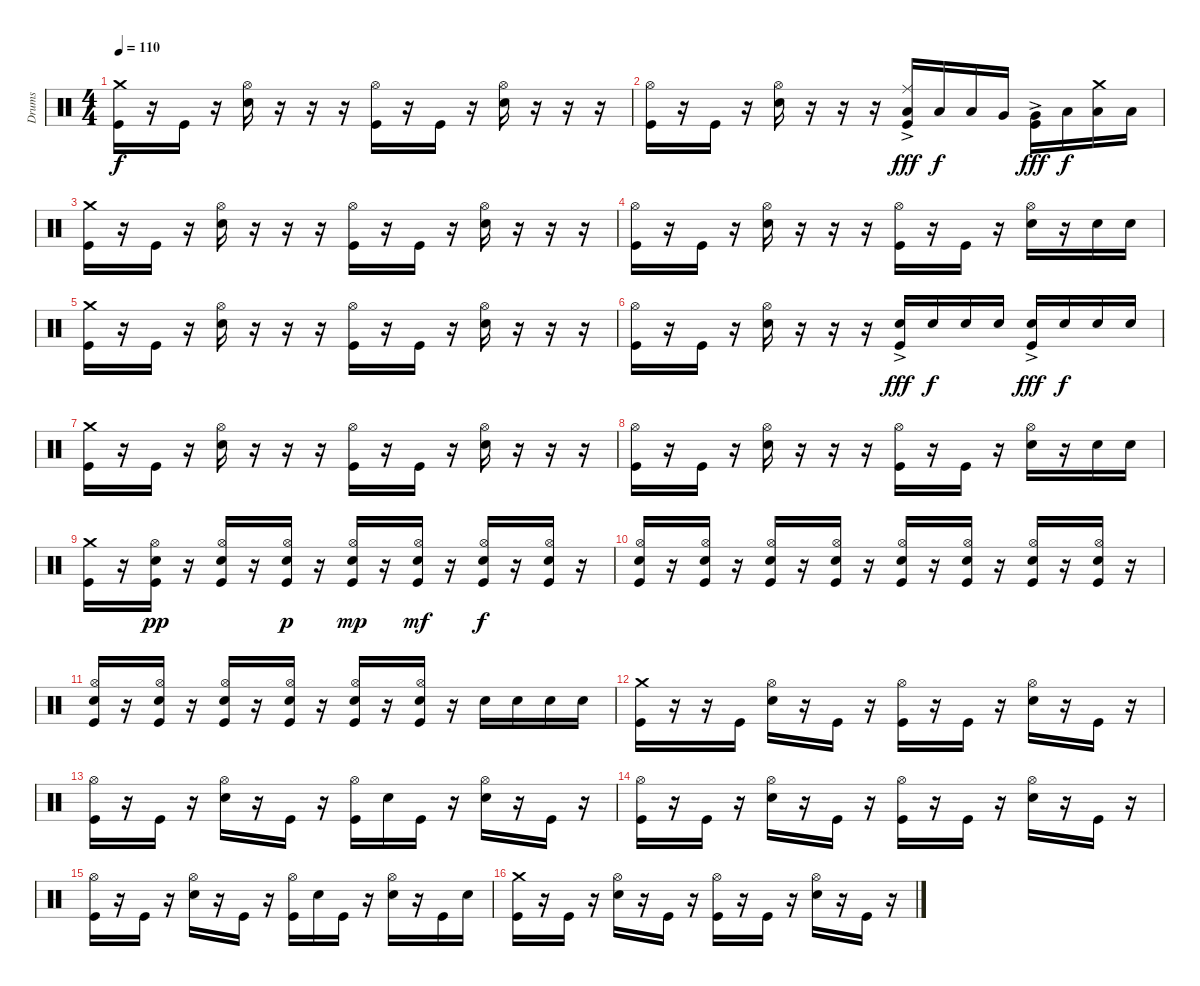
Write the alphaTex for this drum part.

\track ("Drums" "Drums") {instrument percussion}
\staff {score}
\articulation defaults
\ts (4 4)
\tempo 110
\clef neutral
\ks c
("Crash medium (hit)" "Kick (hit)").16{dy f} r.16 "Kick (hit)".16 r.16 ("Hi-Hat (open)" "Snare (hit) 2").16 r.16 r.16 r.16 ("Hi-Hat (open)" "Kick (hit)").16 r.16 "Kick (hit)".16 r.16 ("Hi-Hat (open)" "Snare (hit) 2").16 r.16 r.16 r.16 |
("Hi-Hat (open)" "Kick (hit)").16 r.16 "Kick (hit)".16 r.16 ("Hi-Hat (open)" "Snare (hit) 2").16 r.16 r.16 r.16 ("Ride (middle)" "Low Tom (hit)" "Kick (hit)"{ac}).16{dy fff} "Low Tom (hit)".16{dy f} "Low Tom (hit)".16 "Very Low Tom (hit)".16 ("Very Low Tom (hit)" "Kick (hit)"{ac}).16{dy fff} "Low Floor Tom (hit)".16{dy f} ("Crash medium (hit)" "Low Floor Tom (hit)").16 "Low Floor Tom (hit)".16 |
("Crash medium (hit)" "Kick (hit)").16 r.16 "Kick (hit)".16 r.16 ("Hi-Hat (open)" "Snare (hit) 2").16 r.16 r.16 r.16 ("Hi-Hat (open)" "Kick (hit)").16 r.16 "Kick (hit)".16 r.16 ("Hi-Hat (open)" "Snare (hit) 2").16 r.16 r.16 r.16 |
("Hi-Hat (open)" "Kick (hit)").16 r.16 "Kick (hit)".16 r.16 ("Hi-Hat (open)" "Snare (hit) 2").16 r.16 r.16 r.16 ("Hi-Hat (open)" "Kick (hit)").16 r.16 "Kick (hit)".16 r.16 ("Hi-Hat (open)" "Snare (hit) 2").16 r.16 "Snare (hit) 2".16 "Snare (hit) 2".16 |
("Crash medium (hit)" "Kick (hit)").16 r.16 "Kick (hit)".16 r.16 ("Hi-Hat (open)" "Snare (hit) 2").16 r.16 r.16 r.16 ("Hi-Hat (open)" "Kick (hit)").16 r.16 "Kick (hit)".16 r.16 ("Hi-Hat (open)" "Snare (hit) 2").16 r.16 r.16 r.16 |
("Hi-Hat (open)" "Kick (hit)").16 r.16 "Kick (hit)".16 r.16 ("Hi-Hat (open)" "Snare (hit) 2").16 r.16 r.16 r.16 ("Snare (hit) 2" "Kick (hit)"{ac}).16{dy fff} "Snare (hit) 2".16{dy f} "Snare (hit) 2".16 "Snare (hit) 2".16 ("Snare (hit) 2" "Kick (hit)"{ac}).16{dy fff} "Snare (hit) 2".16{dy f} "Snare (hit) 2".16 "Snare (hit) 2".16 |
("Crash medium (hit)" "Kick (hit)").16 r.16 "Kick (hit)".16 r.16 ("Hi-Hat (open)" "Snare (hit) 2").16 r.16 r.16 r.16 ("Hi-Hat (open)" "Kick (hit)").16 r.16 "Kick (hit)".16 r.16 ("Hi-Hat (open)" "Snare (hit) 2").16 r.16 r.16 r.16 |
("Hi-Hat (open)" "Kick (hit)").16 r.16 "Kick (hit)".16 r.16 ("Hi-Hat (open)" "Snare (hit) 2").16 r.16 r.16 r.16 ("Hi-Hat (open)" "Kick (hit)").16 r.16 "Kick (hit)".16 r.16 ("Hi-Hat (open)" "Snare (hit) 2").16 r.16 "Snare (hit) 2".16 "Snare (hit) 2".16 |
("Crash medium (hit)" "Kick (hit)").16 r.16 ("Hi-Hat (open)" "Snare (hit) 2" "Kick (hit)").16{dy pp} r.16 ("Hi-Hat (open)" "Snare (hit) 2" "Kick (hit)").16 r.16 ("Hi-Hat (open)" "Snare (hit) 2" "Kick (hit)").16{dy p} r.16 ("Hi-Hat (open)" "Snare (hit) 2" "Kick (hit)").16{dy mp} r.16 ("Hi-Hat (open)" "Snare (hit) 2" "Kick (hit)").16{dy mf} r.16 ("Hi-Hat (open)" "Snare (hit) 2" "Kick (hit)").16{dy f} r.16 ("Hi-Hat (open)" "Snare (hit) 2" "Kick (hit)").16 r.16 |
("Hi-Hat (open)" "Snare (hit) 2" "Kick (hit)").16 r.16 ("Hi-Hat (open)" "Snare (hit) 2" "Kick (hit)").16 r.16 ("Hi-Hat (open)" "Snare (hit) 2" "Kick (hit)").16 r.16 ("Hi-Hat (open)" "Snare (hit) 2" "Kick (hit)").16 r.16 ("Hi-Hat (open)" "Snare (hit) 2" "Kick (hit)").16 r.16 ("Hi-Hat (open)" "Snare (hit) 2" "Kick (hit)").16 r.16 ("Hi-Hat (open)" "Snare (hit) 2" "Kick (hit)").16 r.16 ("Hi-Hat (open)" "Snare (hit) 2" "Kick (hit)").16 r.16 |
("Hi-Hat (open)" "Snare (hit) 2" "Kick (hit)").16 r.16 ("Hi-Hat (open)" "Snare (hit) 2" "Kick (hit)").16 r.16 ("Hi-Hat (open)" "Snare (hit) 2" "Kick (hit)").16 r.16 ("Hi-Hat (open)" "Snare (hit) 2" "Kick (hit)").16 r.16 ("Hi-Hat (open)" "Snare (hit) 2" "Kick (hit)").16 r.16 ("Hi-Hat (open)" "Snare (hit) 2" "Kick (hit)").16 r.16 "Snare (hit) 2".16 "Snare (hit) 2".16 "Snare (hit) 2".16 "Snare (hit) 2".16 |
("Crash medium (hit)" "Kick (hit)").16 r.16 r.16 "Kick (hit)".16 ("Hi-Hat (open)" "Snare (hit) 2").16 r.16 "Kick (hit)".16 r.16 ("Hi-Hat (open)" "Kick (hit)").16 r.16 "Kick (hit)".16 r.16 ("Hi-Hat (open)" "Snare (hit) 2").16 r.16 "Kick (hit)".16 r.16 |
("Hi-Hat (open)" "Kick (hit)").16 r.16 "Kick (hit)".16 r.16 ("Hi-Hat (open)" "Snare (hit) 2").16 r.16 "Kick (hit)".16 r.16 ("Hi-Hat (open)" "Kick (hit)").16 "Snare (hit) 2".16 "Kick (hit)".16 r.16 ("Hi-Hat (open)" "Snare (hit) 2").16 r.16 "Kick (hit)".16 r.16 |
("Hi-Hat (open)" "Kick (hit)").16 r.16 "Kick (hit)".16 r.16 ("Hi-Hat (open)" "Snare (hit) 2").16 r.16 "Kick (hit)".16 r.16 ("Hi-Hat (open)" "Kick (hit)").16 r.16 "Kick (hit)".16 r.16 ("Hi-Hat (open)" "Snare (hit) 2").16 r.16 "Kick (hit)".16 r.16 |
("Hi-Hat (open)" "Kick (hit)").16 r.16 "Kick (hit)".16 r.16 ("Hi-Hat (open)" "Snare (hit) 2").16 r.16 "Kick (hit)".16 r.16 ("Hi-Hat (open)" "Kick (hit)").16 "Snare (hit) 2".16 "Kick (hit)".16 r.16 ("Hi-Hat (open)" "Snare (hit) 2").16 r.16 "Kick (hit)".16 "Snare (hit) 2".16 |
("Crash medium (hit)" "Kick (hit)").16 r.16 "Kick (hit)".16 r.16 ("Hi-Hat (open)" "Snare (hit) 2").16 r.16 "Kick (hit)".16 r.16 ("Hi-Hat (open)" "Kick (hit)").16 r.16 "Kick (hit)".16 r.16 ("Hi-Hat (open)" "Snare (hit) 2").16 r.16 "Kick (hit)".16 r.16
